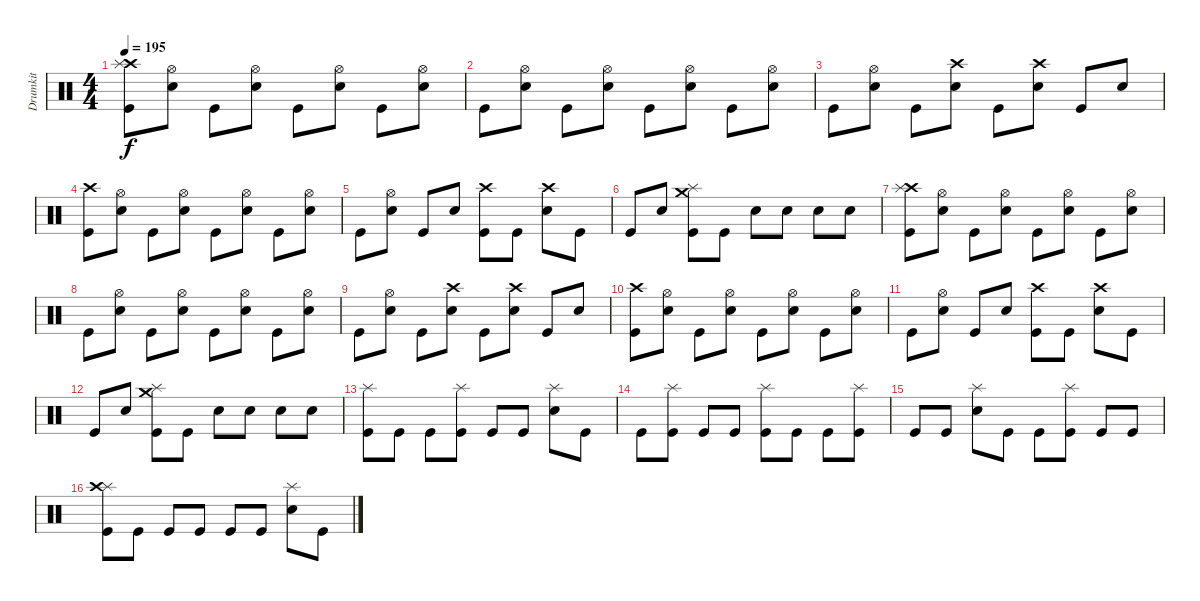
\track ("Drumkit" "Drumkit") {instrument percussion}
\staff {score}
\articulation defaults
\ts (4 4)
\tempo 195
\clef neutral
\ks c
("Kick (hit)" "Crash high (hit)" "Splash (hit)").8{dy f} ("Snare (hit) 2" "Hi-Hat (open)").8 "Kick (hit)".8 ("Snare (hit) 2" "Hi-Hat (open)").8 "Kick (hit)".8 ("Snare (hit) 2" "Hi-Hat (open)").8 "Kick (hit)".8 ("Snare (hit) 2" "Hi-Hat (open)").8 |
"Kick (hit)".8 ("Snare (hit) 2" "Hi-Hat (open)").8 "Kick (hit)".8 ("Snare (hit) 2" "Hi-Hat (open)").8 "Kick (hit)".8 ("Snare (hit) 2" "Hi-Hat (open)").8 "Kick (hit)".8 ("Snare (hit) 2" "Hi-Hat (open)").8 |
"Kick (hit)".8 ("Snare (hit) 2" "Hi-Hat (open)").8 "Kick (hit)".8 ("Snare (hit) 2" "Crash high (hit)").8 "Kick (hit)".8 ("Snare (hit) 2" "Crash high (hit)").8 "Kick (hit)".8 "Snare (hit) 2".8 |
("Kick (hit)" "Crash high (hit)").8 ("Snare (hit) 2" "Hi-Hat (open)").8 "Kick (hit)".8 ("Snare (hit) 2" "Hi-Hat (open)").8 "Kick (hit)".8 ("Snare (hit) 2" "Hi-Hat (open)").8 "Kick (hit)".8 ("Snare (hit) 2" "Hi-Hat (open)").8 |
"Kick (hit)".8 ("Snare (hit) 2" "Hi-Hat (open)").8 "Kick (hit)".8 "Snare (hit) 2".8 ("Kick (hit)" "Crash high (hit)").8 "Kick (hit)".8 ("Snare (hit) 2" "Crash high (hit)").8 "Kick (hit)".8 |
"Kick (hit)".8 "Snare (hit) 2".8 ("Kick (hit)" "Crash medium (hit)" "Splash (hit)").8 "Kick (hit)".8 "Snare (hit) 2".8 "Snare (hit) 2".8 "Snare (hit) 2".8 "Snare (hit) 2".8 |
("Kick (hit)" "Crash high (hit)" "Splash (hit)").8 ("Snare (hit) 2" "Hi-Hat (open)").8 "Kick (hit)".8 ("Snare (hit) 2" "Hi-Hat (open)").8 "Kick (hit)".8 ("Snare (hit) 2" "Hi-Hat (open)").8 "Kick (hit)".8 ("Snare (hit) 2" "Hi-Hat (open)").8 |
"Kick (hit)".8 ("Snare (hit) 2" "Hi-Hat (open)").8 "Kick (hit)".8 ("Snare (hit) 2" "Hi-Hat (open)").8 "Kick (hit)".8 ("Snare (hit) 2" "Hi-Hat (open)").8 "Kick (hit)".8 ("Snare (hit) 2" "Hi-Hat (open)").8 |
"Kick (hit)".8 ("Snare (hit) 2" "Hi-Hat (open)").8 "Kick (hit)".8 ("Snare (hit) 2" "Crash high (hit)").8 "Kick (hit)".8 ("Snare (hit) 2" "Crash high (hit)").8 "Kick (hit)".8 "Snare (hit) 2".8 |
("Kick (hit)" "Crash high (hit)").8 ("Snare (hit) 2" "Hi-Hat (open)").8 "Kick (hit)".8 ("Snare (hit) 2" "Hi-Hat (open)").8 "Kick (hit)".8 ("Snare (hit) 2" "Hi-Hat (open)").8 "Kick (hit)".8 ("Snare (hit) 2" "Hi-Hat (open)").8 |
"Kick (hit)".8 ("Snare (hit) 2" "Hi-Hat (open)").8 "Kick (hit)".8 "Snare (hit) 2".8 ("Kick (hit)" "Crash high (hit)").8 "Kick (hit)".8 ("Snare (hit) 2" "Crash high (hit)").8 "Kick (hit)".8 |
"Kick (hit)".8 "Snare (hit) 2".8 ("Kick (hit)" "Crash medium (hit)" "Splash (hit)").8 "Kick (hit)".8 "Snare (hit) 2".8 "Snare (hit) 2".8 "Snare (hit) 2".8 "Snare (hit) 2".8 |
("Kick (hit)" "Splash (hit)").8 "Kick (hit)".8 "Kick (hit)".8 ("Kick (hit)" "Splash (hit)").8 "Kick (hit)".8 "Kick (hit)".8 ("Snare (hit) 2" "Splash (hit)").8 "Kick (hit)".8 |
"Kick (hit)".8 ("Kick (hit)" "Splash (hit)").8 "Kick (hit)".8 "Kick (hit)".8 ("Kick (hit)" "Splash (hit)").8 "Kick (hit)".8 "Kick (hit)".8 ("Kick (hit)" "Splash (hit)").8 |
"Kick (hit)".8 "Kick (hit)".8 ("Snare (hit) 2" "Splash (hit)").8 "Kick (hit)".8 "Kick (hit)".8 ("Kick (hit)" "Splash (hit)").8 "Kick (hit)".8 "Kick (hit)".8 |
("Kick (hit)" "Splash (hit)" "Crash high (hit)").8 "Kick (hit)".8 "Kick (hit)".8 "Kick (hit)".8 "Kick (hit)".8 "Kick (hit)".8 ("Snare (hit) 2" "Splash (hit)").8 "Kick (hit)".8
